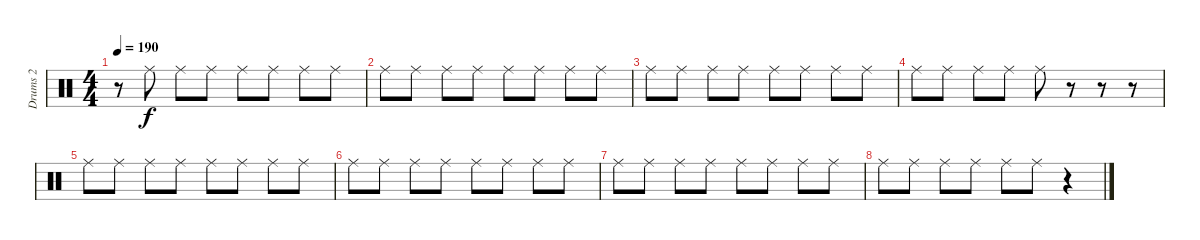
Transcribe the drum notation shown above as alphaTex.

\track ("Drums 2" "Drums 2") {instrument percussion}
\staff {score}
\articulation defaults
\ts (4 4)
\tempo 190
\clef neutral
\ks c
r.8{dy f} "Ride (middle)".8 "Ride (middle)".8 "Ride (middle)".8 "Ride (middle)".8 "Ride (middle)".8 "Ride (middle)".8 "Ride (middle)".8 |
"Ride (middle)".8 "Ride (middle)".8 "Ride (middle)".8 "Ride (middle)".8 "Ride (middle)".8 "Ride (middle)".8 "Ride (middle)".8 "Ride (middle)".8 |
"Ride (middle)".8 "Ride (middle)".8 "Ride (middle)".8 "Ride (middle)".8 "Ride (middle)".8 "Ride (middle)".8 "Ride (middle)".8 "Ride (middle)".8 |
"Ride (middle)".8 "Ride (middle)".8 "Ride (middle)".8 "Ride (middle)".8 "Ride (middle)".8 r.8 r.8 r.8 |
"Ride (middle)".8 "Ride (middle)".8 "Ride (middle)".8 "Ride (middle)".8 "Ride (middle)".8 "Ride (middle)".8 "Ride (middle)".8 "Ride (middle)".8 |
"Ride (middle)".8 "Ride (middle)".8 "Ride (middle)".8 "Ride (middle)".8 "Ride (middle)".8 "Ride (middle)".8 "Ride (middle)".8 "Ride (middle)".8 |
"Ride (middle)".8 "Ride (middle)".8 "Ride (middle)".8 "Ride (middle)".8 "Ride (middle)".8 "Ride (middle)".8 "Ride (middle)".8 "Ride (middle)".8 |
"Ride (middle)".8 "Ride (middle)".8 "Ride (middle)".8 "Ride (middle)".8 "Ride (middle)".8 "Ride (middle)".8 r.4
